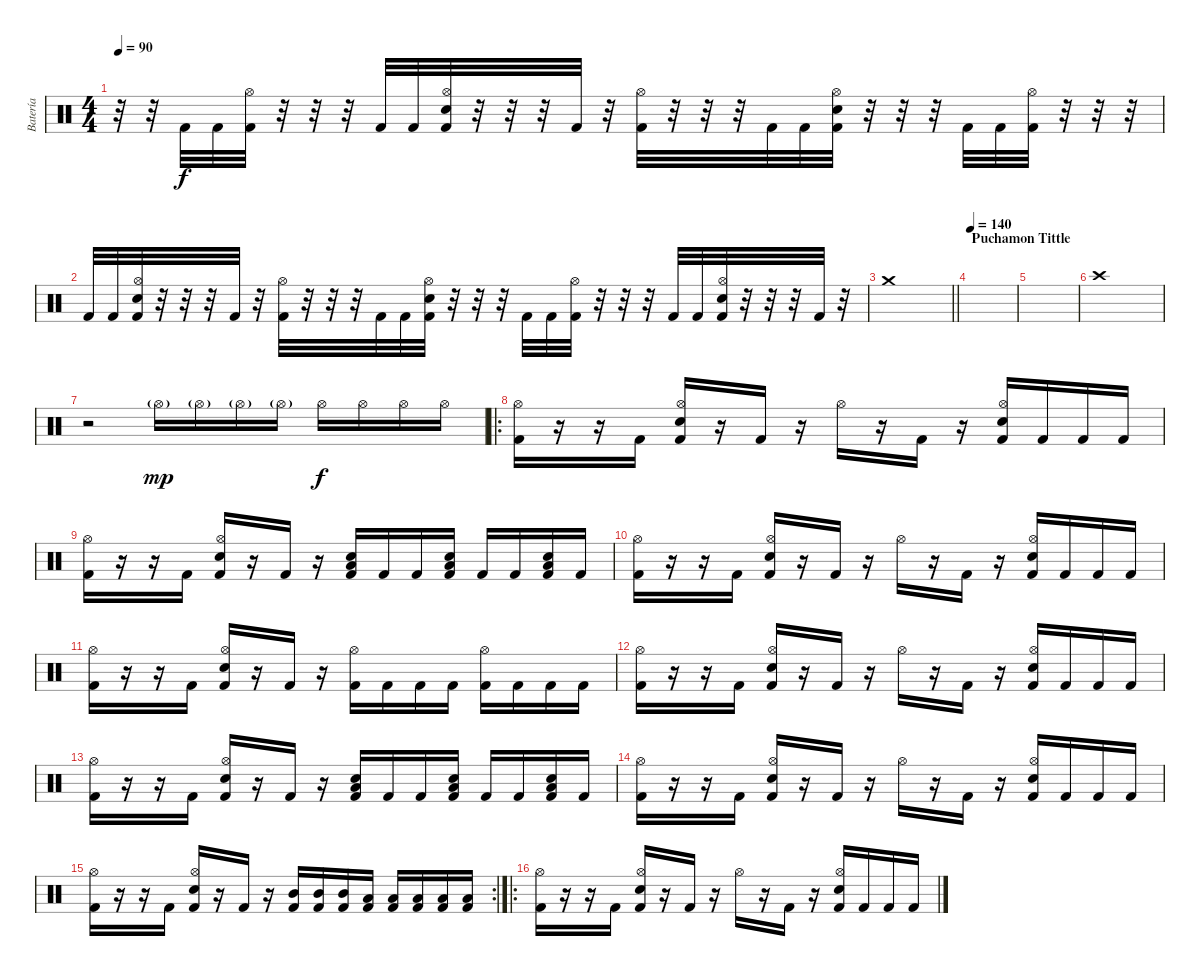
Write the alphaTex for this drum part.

\track ("Batería" "Batería") {instrument percussion}
\staff {score}
\articulation defaults
\ts (4 4)
\tempo 90
\clef neutral
\ks c
r.32{dy f} r.32 "Kick (hit) 2".32 "Kick (hit) 2".32 ("Hi-Hat (open)" "Kick (hit) 2").32 r.32 r.32 r.32 "Kick (hit) 2".32 "Kick (hit) 2".32 ("Hi-Hat (open)" "Snare (hit) 2" "Kick (hit) 2").32 r.32 r.32 r.32 "Kick (hit) 2".32 r.32 ("Hi-Hat (open)" "Kick (hit) 2").32 r.32 r.32 r.32 "Kick (hit) 2".32 "Kick (hit) 2".32 ("Hi-Hat (open)" "Snare (hit) 2" "Kick (hit) 2").32 r.32 r.32 r.32 "Kick (hit) 2".32 "Kick (hit) 2".32 ("Hi-Hat (open)" "Kick (hit) 2").32 r.32 r.32 r.32 |
"Kick (hit) 2".32 "Kick (hit) 2".32 ("Hi-Hat (open)" "Snare (hit) 2" "Kick (hit) 2").32 r.32 r.32 r.32 "Kick (hit) 2".32 r.32 ("Hi-Hat (open)" "Kick (hit) 2").32 r.32 r.32 r.32 "Kick (hit) 2".32 "Kick (hit) 2".32 ("Hi-Hat (open)" "Snare (hit) 2" "Kick (hit) 2").32 r.32 r.32 r.32 "Kick (hit) 2".32 "Kick (hit) 2".32 ("Hi-Hat (open)" "Kick (hit) 2").32 r.32 r.32 r.32 "Kick (hit) 2".32 "Kick (hit) 2".32 ("Hi-Hat (open)" "Snare (hit) 2" "Kick (hit) 2").32 r.32 r.32 r.32 "Kick (hit) 2".32 r.32 |
\barLineRight lightlight "Crash medium (hit)".1
|
\section ("" "Puchamon Tittle")
\tempo 140
|
|
"Crash high (hit)".1 |
r.2 "Hi-Hat (open)"{g}.16{dy mp} "Hi-Hat (open)"{g}.16 "Hi-Hat (open)"{g}.16 "Hi-Hat (open)"{g}.16 "Hi-Hat (open)".16{dy f} "Hi-Hat (open)".16 "Hi-Hat (open)".16 "Hi-Hat (open)".16 |
\ro
("Hi-Hat (open)" "Kick (hit) 2").16 r.16 r.16 "Kick (hit) 2".16 ("Hi-Hat (open)" "Snare (hit) 2" "Kick (hit) 2").16 r.16 "Kick (hit) 2".16 r.16 "Hi-Hat (open)".16 r.16 "Kick (hit) 2".16 r.16 ("Hi-Hat (open)" "Snare (hit) 2" "Kick (hit) 2").16 "Kick (hit) 2".16 "Kick (hit) 2".16 "Kick (hit) 2".16 |
("Hi-Hat (open)" "Kick (hit) 2").16 r.16 r.16 "Kick (hit) 2".16 ("Hi-Hat (open)" "Snare (hit) 2" "Kick (hit) 2").16 r.16 "Kick (hit) 2".16 r.16 ("Low Floor Tom (hit)" "Snare (hit) 2" "Kick (hit) 2").16 "Kick (hit) 2".16 "Kick (hit) 2".16 ("Low Floor Tom (hit)" "Snare (hit) 2" "Kick (hit) 2").16 "Kick (hit) 2".16 "Kick (hit) 2".16 ("Low Floor Tom (hit)" "Snare (hit) 2" "Kick (hit) 2").16 "Kick (hit) 2".16 |
("Hi-Hat (open)" "Kick (hit) 2").16 r.16 r.16 "Kick (hit) 2".16 ("Hi-Hat (open)" "Snare (hit) 2" "Kick (hit) 2").16 r.16 "Kick (hit) 2".16 r.16 "Hi-Hat (open)".16 r.16 "Kick (hit) 2".16 r.16 ("Hi-Hat (open)" "Snare (hit) 2" "Kick (hit) 2").16 "Kick (hit) 2".16 "Kick (hit) 2".16 "Kick (hit) 2".16 |
("Hi-Hat (open)" "Kick (hit) 2").16 r.16 r.16 "Kick (hit) 2".16 ("Hi-Hat (open)" "Snare (hit) 2" "Kick (hit) 2").16 r.16 "Kick (hit) 2".16 r.16 ("Hi-Hat (open)" "Kick (hit) 2").16 "Kick (hit) 2".16 "Kick (hit) 2".16 "Kick (hit) 2".16 ("Hi-Hat (open)" "Kick (hit) 2").16 "Kick (hit) 2".16 "Kick (hit) 2".16 "Kick (hit) 2".16 |
("Hi-Hat (open)" "Kick (hit) 2").16 r.16 r.16 "Kick (hit) 2".16 ("Hi-Hat (open)" "Snare (hit) 2" "Kick (hit) 2").16 r.16 "Kick (hit) 2".16 r.16 "Hi-Hat (open)".16 r.16 "Kick (hit) 2".16 r.16 ("Hi-Hat (open)" "Snare (hit) 2" "Kick (hit) 2").16 "Kick (hit) 2".16 "Kick (hit) 2".16 "Kick (hit) 2".16 |
("Hi-Hat (open)" "Kick (hit) 2").16 r.16 r.16 "Kick (hit) 2".16 ("Hi-Hat (open)" "Snare (hit) 2" "Kick (hit) 2").16 r.16 "Kick (hit) 2".16 r.16 ("Low Floor Tom (hit)" "Snare (hit) 2" "Kick (hit) 2").16 "Kick (hit) 2".16 "Kick (hit) 2".16 ("Low Floor Tom (hit)" "Snare (hit) 2" "Kick (hit) 2").16 "Kick (hit) 2".16 "Kick (hit) 2".16 ("Low Floor Tom (hit)" "Snare (hit) 2" "Kick (hit) 2").16 "Kick (hit) 2".16 |
("Hi-Hat (open)" "Kick (hit) 2").16 r.16 r.16 "Kick (hit) 2".16 ("Hi-Hat (open)" "Snare (hit) 2" "Kick (hit) 2").16 r.16 "Kick (hit) 2".16 r.16 "Hi-Hat (open)".16 r.16 "Kick (hit) 2".16 r.16 ("Hi-Hat (open)" "Snare (hit) 2" "Kick (hit) 2").16 "Kick (hit) 2".16 "Kick (hit) 2".16 "Kick (hit) 2".16 |
\rc 2
("Hi-Hat (open)" "Kick (hit) 2").16 r.16 r.16 "Kick (hit) 2".16 ("Hi-Hat (open)" "Snare (hit) 2" "Kick (hit) 2").16 r.16 "Kick (hit) 2".16 r.16 ("Mid Tom (hit)" "Kick (hit) 2").16 ("Mid Tom (hit)" "Kick (hit) 2").16 ("Mid Tom (hit)" "Kick (hit) 2").16 ("Low Floor Tom (hit)" "Kick (hit) 2").16 ("Low Floor Tom (hit)" "Kick (hit) 2").16 ("Low Floor Tom (hit)" "Kick (hit) 2").16 ("Low Tom (hit)" "Kick (hit) 2").16 ("Low Tom (hit)" "Kick (hit) 2").16 |
\ro
("Hi-Hat (open)" "Kick (hit) 2").16 r.16 r.16 "Kick (hit) 2".16 ("Hi-Hat (open)" "Snare (hit) 2" "Kick (hit) 2").16 r.16 "Kick (hit) 2".16 r.16 "Hi-Hat (open)".16 r.16 "Kick (hit) 2".16 r.16 ("Hi-Hat (open)" "Snare (hit) 2" "Kick (hit) 2").16 "Kick (hit) 2".16 "Kick (hit) 2".16 "Kick (hit) 2".16
